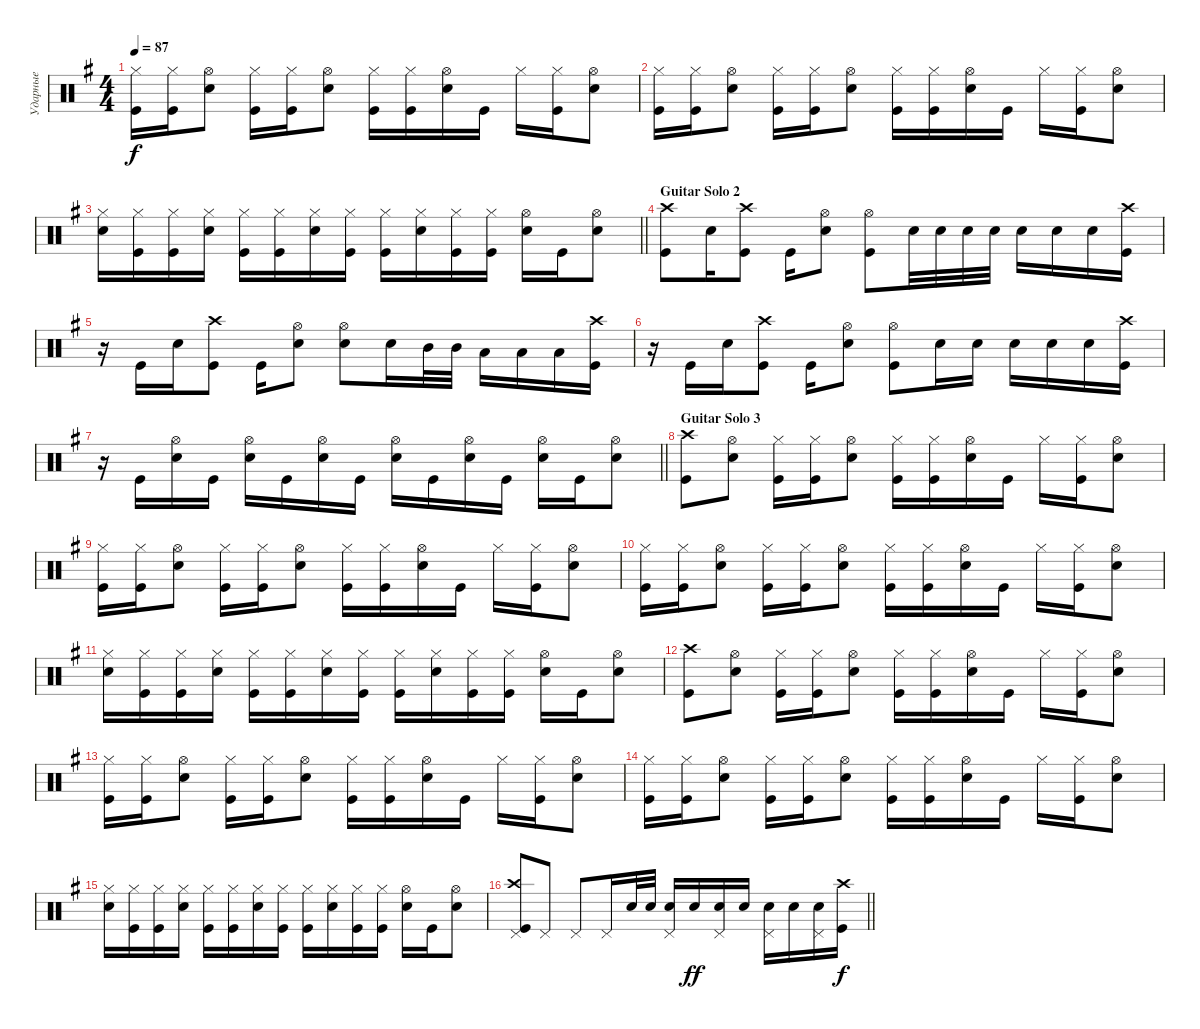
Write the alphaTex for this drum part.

\track ("Ударные" "Ударные") {instrument percussion}
\staff {score}
\articulation defaults
\ts (4 4)
\tempo 87
\clef neutral
\ks eminor
("Kick (hit)" "Hi-Hat (closed)").16{dy f} ("Kick (hit)" "Hi-Hat (closed)").16 ("Snare (hit) 2" "Hi-Hat (open)").8 ("Kick (hit)" "Hi-Hat (closed)").16 ("Kick (hit)" "Hi-Hat (closed)").16 ("Snare (hit) 2" "Hi-Hat (open)").8 ("Kick (hit)" "Hi-Hat (closed)").16 ("Kick (hit)" "Hi-Hat (closed)").16 ("Snare (hit) 2" "Hi-Hat (open)").16 "Kick (hit)".16 "Hi-Hat (closed)".16 ("Kick (hit)" "Hi-Hat (closed)").16 ("Snare (hit) 2" "Hi-Hat (open)").8 |
("Kick (hit)" "Hi-Hat (closed)").16 ("Kick (hit)" "Hi-Hat (closed)").16 ("Snare (hit) 2" "Hi-Hat (open)").8 ("Kick (hit)" "Hi-Hat (closed)").16 ("Kick (hit)" "Hi-Hat (closed)").16 ("Snare (hit) 2" "Hi-Hat (open)").8 ("Kick (hit)" "Hi-Hat (closed)").16 ("Kick (hit)" "Hi-Hat (closed)").16 ("Snare (hit) 2" "Hi-Hat (open)").16 "Kick (hit)".16 "Hi-Hat (closed)".16 ("Kick (hit)" "Hi-Hat (closed)").16 ("Snare (hit) 2" "Hi-Hat (open)").8 |
\barLineRight lightlight
("Snare (hit) 2" "Hi-Hat (closed)").16 ("Kick (hit)" "Hi-Hat (closed)").16 ("Kick (hit)" "Hi-Hat (closed)").16 ("Snare (hit) 2" "Hi-Hat (closed)").16 ("Kick (hit)" "Hi-Hat (closed)").16 ("Kick (hit)" "Hi-Hat (closed)").16 ("Snare (hit) 2" "Hi-Hat (closed)").16 ("Kick (hit)" "Hi-Hat (closed)").16 ("Kick (hit)" "Hi-Hat (closed)").16 ("Snare (hit) 2" "Hi-Hat (closed)").16 ("Kick (hit)" "Hi-Hat (closed)").16 ("Kick (hit)" "Hi-Hat (closed)").16 ("Snare (hit) 2" "Hi-Hat (open)").16 "Kick (hit)".16 ("Snare (hit) 2" "Hi-Hat (open)").8 |
\section ("" "Guitar Solo 2")
("Kick (hit)" "Crash high (hit)").8 "Snare (hit) 2".16 ("Kick (hit)" "Crash high (hit)").8 "Kick (hit)".16 ("Snare (hit) 2" "Hi-Hat (open)").8 ("Kick (hit)" "Hi-Hat (open)").8 "Snare (hit) 2".32 "Snare (hit) 2".32 "Snare (hit) 2".32 "Snare (hit) 2".32 "Snare (hit) 2".16 "Snare (hit) 2".16 "Snare (hit) 2".16 ("Kick (hit)" "Crash high (hit)").16 |
r.16 "Kick (hit)".16 "Snare (hit) 2".16 ("Kick (hit)" "Crash high (hit)").8 "Kick (hit)".16 ("Snare (hit) 2" "Hi-Hat (open)").8 ("Snare (hit) 2" "Hi-Hat (open)").8 "Snare (hit) 2".16 "Mid Tom (hit)".32 "Mid Tom (hit)".32 "Low Tom (hit)".16 "Low Tom (hit)".16 "Low Tom (hit)".16 ("Kick (hit)" "Crash high (hit)").16 |
r.16 "Kick (hit)".16 "Snare (hit) 2".16 ("Kick (hit)" "Crash high (hit)").8 "Kick (hit)".16 ("Snare (hit) 2" "Hi-Hat (open)").8 ("Kick (hit)" "Hi-Hat (open)").8 "Snare (hit) 2".16 "Snare (hit) 2".16 "Snare (hit) 2".16 "Snare (hit) 2".16 "Snare (hit) 2".16 ("Kick (hit)" "Crash high (hit)").16 |
\barLineRight lightlight
r.16 "Kick (hit)".16 ("Snare (hit) 2" "Hi-Hat (open)").16 "Kick (hit)".16 ("Snare (hit) 2" "Hi-Hat (open)").16 "Kick (hit)".16 ("Snare (hit) 2" "Hi-Hat (open)").16 "Kick (hit)".16 ("Snare (hit) 2" "Hi-Hat (open)").16 "Kick (hit)".16 ("Snare (hit) 2" "Hi-Hat (open)").16 "Kick (hit)".16 ("Snare (hit) 2" "Hi-Hat (open)").16 "Kick (hit)".16 ("Snare (hit) 2" "Hi-Hat (open)").8 |
\section ("" "Guitar Solo 3")
("Kick (hit)" "Crash high (hit)").8 ("Snare (hit) 2" "Hi-Hat (open)").8 ("Kick (hit)" "Hi-Hat (closed)").16 ("Kick (hit)" "Hi-Hat (closed)").16 ("Snare (hit) 2" "Hi-Hat (open)").8 ("Kick (hit)" "Hi-Hat (closed)").16 ("Kick (hit)" "Hi-Hat (closed)").16 ("Snare (hit) 2" "Hi-Hat (open)").16 "Kick (hit)".16 "Hi-Hat (closed)".16 ("Kick (hit)" "Hi-Hat (closed)").16 ("Snare (hit) 2" "Hi-Hat (open)").8 |
("Kick (hit)" "Hi-Hat (closed)").16 ("Kick (hit)" "Hi-Hat (closed)").16 ("Snare (hit) 2" "Hi-Hat (open)").8 ("Kick (hit)" "Hi-Hat (closed)").16 ("Kick (hit)" "Hi-Hat (closed)").16 ("Snare (hit) 2" "Hi-Hat (open)").8 ("Kick (hit)" "Hi-Hat (closed)").16 ("Kick (hit)" "Hi-Hat (closed)").16 ("Snare (hit) 2" "Hi-Hat (open)").16 "Kick (hit)".16 "Hi-Hat (closed)".16 ("Kick (hit)" "Hi-Hat (closed)").16 ("Snare (hit) 2" "Hi-Hat (open)").8 |
("Kick (hit)" "Hi-Hat (closed)").16 ("Kick (hit)" "Hi-Hat (closed)").16 ("Snare (hit) 2" "Hi-Hat (open)").8 ("Kick (hit)" "Hi-Hat (closed)").16 ("Kick (hit)" "Hi-Hat (closed)").16 ("Snare (hit) 2" "Hi-Hat (open)").8 ("Kick (hit)" "Hi-Hat (closed)").16 ("Kick (hit)" "Hi-Hat (closed)").16 ("Snare (hit) 2" "Hi-Hat (open)").16 "Kick (hit)".16 "Hi-Hat (closed)".16 ("Kick (hit)" "Hi-Hat (closed)").16 ("Snare (hit) 2" "Hi-Hat (open)").8 |
("Snare (hit) 2" "Hi-Hat (closed)").16 ("Kick (hit)" "Hi-Hat (closed)").16 ("Kick (hit)" "Hi-Hat (closed)").16 ("Snare (hit) 2" "Hi-Hat (closed)").16 ("Kick (hit)" "Hi-Hat (closed)").16 ("Kick (hit)" "Hi-Hat (closed)").16 ("Snare (hit) 2" "Hi-Hat (closed)").16 ("Kick (hit)" "Hi-Hat (closed)").16 ("Kick (hit)" "Hi-Hat (closed)").16 ("Snare (hit) 2" "Hi-Hat (closed)").16 ("Kick (hit)" "Hi-Hat (closed)").16 ("Kick (hit)" "Hi-Hat (closed)").16 ("Snare (hit) 2" "Hi-Hat (open)").16 "Kick (hit)".16 ("Snare (hit) 2" "Hi-Hat (open)").8 |
("Kick (hit)" "Crash high (hit)").8 ("Snare (hit) 2" "Hi-Hat (open)").8 ("Kick (hit)" "Hi-Hat (closed)").16 ("Kick (hit)" "Hi-Hat (closed)").16 ("Snare (hit) 2" "Hi-Hat (open)").8 ("Kick (hit)" "Hi-Hat (closed)").16 ("Kick (hit)" "Hi-Hat (closed)").16 ("Snare (hit) 2" "Hi-Hat (open)").16 "Kick (hit)".16 "Hi-Hat (closed)".16 ("Kick (hit)" "Hi-Hat (closed)").16 ("Snare (hit) 2" "Hi-Hat (open)").8 |
("Kick (hit)" "Hi-Hat (closed)").16 ("Kick (hit)" "Hi-Hat (closed)").16 ("Snare (hit) 2" "Hi-Hat (open)").8 ("Kick (hit)" "Hi-Hat (closed)").16 ("Kick (hit)" "Hi-Hat (closed)").16 ("Snare (hit) 2" "Hi-Hat (open)").8 ("Kick (hit)" "Hi-Hat (closed)").16 ("Kick (hit)" "Hi-Hat (closed)").16 ("Snare (hit) 2" "Hi-Hat (open)").16 "Kick (hit)".16 "Hi-Hat (closed)".16 ("Kick (hit)" "Hi-Hat (closed)").16 ("Snare (hit) 2" "Hi-Hat (open)").8 |
("Kick (hit)" "Hi-Hat (closed)").16 ("Kick (hit)" "Hi-Hat (closed)").16 ("Snare (hit) 2" "Hi-Hat (open)").8 ("Kick (hit)" "Hi-Hat (closed)").16 ("Kick (hit)" "Hi-Hat (closed)").16 ("Snare (hit) 2" "Hi-Hat (open)").8 ("Kick (hit)" "Hi-Hat (closed)").16 ("Kick (hit)" "Hi-Hat (closed)").16 ("Snare (hit) 2" "Hi-Hat (open)").16 "Kick (hit)".16 "Hi-Hat (closed)".16 ("Kick (hit)" "Hi-Hat (closed)").16 ("Snare (hit) 2" "Hi-Hat (open)").8 |
("Snare (hit) 2" "Hi-Hat (closed)").16 ("Kick (hit)" "Hi-Hat (closed)").16 ("Kick (hit)" "Hi-Hat (closed)").16 ("Snare (hit) 2" "Hi-Hat (closed)").16 ("Kick (hit)" "Hi-Hat (closed)").16 ("Kick (hit)" "Hi-Hat (closed)").16 ("Snare (hit) 2" "Hi-Hat (closed)").16 ("Kick (hit)" "Hi-Hat (closed)").16 ("Kick (hit)" "Hi-Hat (closed)").16 ("Snare (hit) 2" "Hi-Hat (closed)").16 ("Kick (hit)" "Hi-Hat (closed)").16 ("Kick (hit)" "Hi-Hat (closed)").16 ("Snare (hit) 2" "Hi-Hat (open)").16 "Kick (hit)".16 ("Snare (hit) 2" "Hi-Hat (open)").8 |
\barLineRight lightlight
("Kick (hit)" "Crash high (hit)" "Pedal Hi-Hat (hit)").8 "Pedal Hi-Hat (hit)".8 "Pedal Hi-Hat (hit)".8 "Pedal Hi-Hat (hit)".16 "Snare (hit) 2".32 "Snare (hit) 2".32 ("Snare (hit) 2" "Pedal Hi-Hat (hit)").16 "Snare (hit) 2".16{dy ff} ("Snare (hit) 2" "Pedal Hi-Hat (hit)").16 "Snare (hit) 2".16 ("Snare (hit) 2" "Pedal Hi-Hat (hit)").16 "Snare (hit) 2".16 ("Snare (hit) 2" "Pedal Hi-Hat (hit)").16 ("Kick (hit)" "Crash high (hit)").16{dy f}
